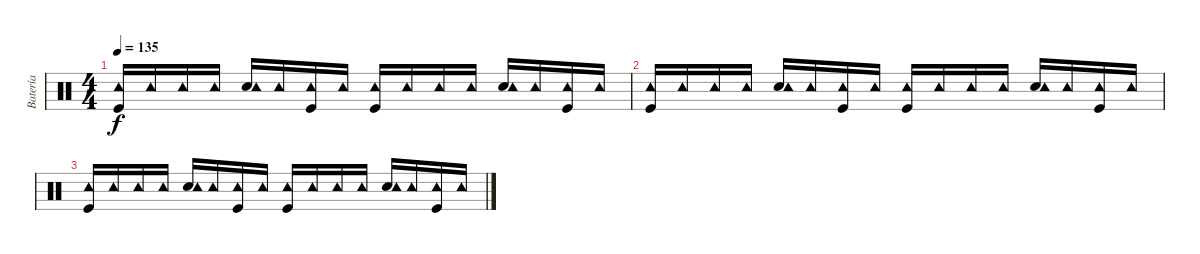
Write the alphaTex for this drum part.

\track ("Batería" "Batería") {instrument percussion}
\staff {score}
\articulation defaults
\ts (4 4)
\tempo 135
\clef neutral
\ks c
("Kick (hit)" "Tambourine (hit)").16{dy f} "Tambourine (hit)".16 "Tambourine (hit)".16 "Tambourine (hit)".16 ("Snare (hit) 2" "Tambourine (hit)").16 "Tambourine (hit)".16 ("Kick (hit)" "Tambourine (hit)").16 "Tambourine (hit)".16 ("Kick (hit)" "Tambourine (hit)").16 "Tambourine (hit)".16 "Tambourine (hit)".16 "Tambourine (hit)".16 ("Snare (hit) 2" "Tambourine (hit)").16 "Tambourine (hit)".16 ("Kick (hit)" "Tambourine (hit)").16 "Tambourine (hit)".16 |
("Kick (hit)" "Tambourine (hit)").16 "Tambourine (hit)".16 "Tambourine (hit)".16 "Tambourine (hit)".16 ("Snare (hit) 2" "Tambourine (hit)").16 "Tambourine (hit)".16 ("Kick (hit)" "Tambourine (hit)").16 "Tambourine (hit)".16 ("Kick (hit)" "Tambourine (hit)").16 "Tambourine (hit)".16 "Tambourine (hit)".16 "Tambourine (hit)".16 ("Snare (hit) 2" "Tambourine (hit)").16 "Tambourine (hit)".16 ("Kick (hit)" "Tambourine (hit)").16 "Tambourine (hit)".16 |
("Kick (hit)" "Tambourine (hit)").16 "Tambourine (hit)".16 "Tambourine (hit)".16 "Tambourine (hit)".16 ("Snare (hit) 2" "Tambourine (hit)").16 "Tambourine (hit)".16 ("Kick (hit)" "Tambourine (hit)").16 "Tambourine (hit)".16 ("Kick (hit)" "Tambourine (hit)").16 "Tambourine (hit)".16 "Tambourine (hit)".16 "Tambourine (hit)".16 ("Snare (hit) 2" "Tambourine (hit)").16 "Tambourine (hit)".16 ("Kick (hit)" "Tambourine (hit)").16 "Tambourine (hit)".16
